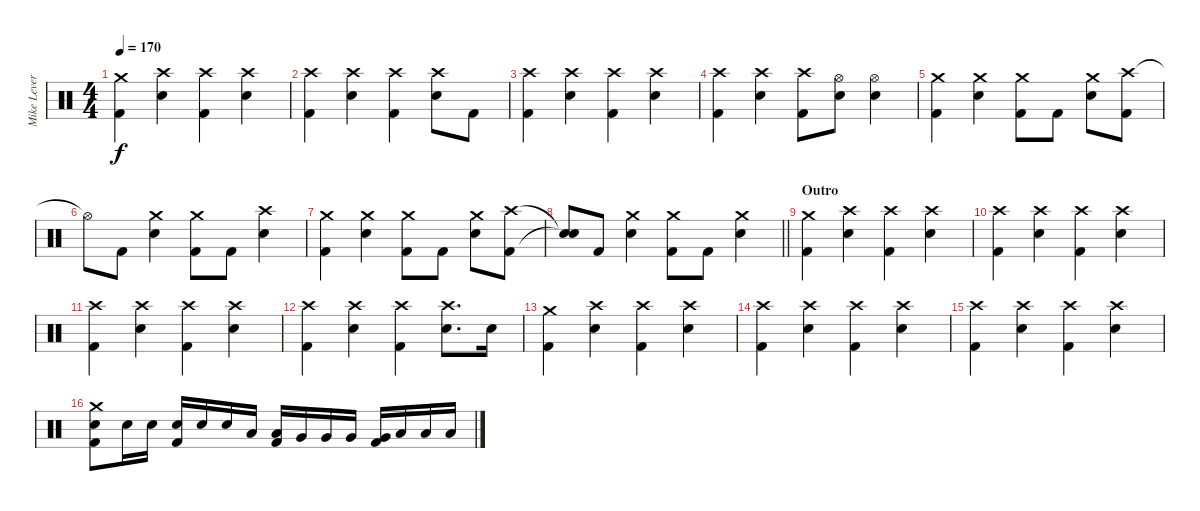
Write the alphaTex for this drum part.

\track ("Mike Leverence - Drums" "Mike Lever") {instrument percussion}
\staff {score}
\articulation defaults
\ts (4 4)
\tempo 170
\clef neutral
\ks c
("Crash medium (hit)" "Kick (hit) 2").4{dy f} ("Crash high (hit)" "Electric Snare (hit)").4 ("Crash high (hit)" "Kick (hit) 2").4 ("Crash high (hit)" "Electric Snare (hit)").4 |
("Crash high (hit)" "Kick (hit) 2").4 ("Crash high (hit)" "Electric Snare (hit)").4 ("Crash high (hit)" "Kick (hit) 2").4 ("Crash high (hit)" "Electric Snare (hit)").8 "Kick (hit) 2".8 |
("Crash high (hit)" "Kick (hit) 2").4 ("Crash high (hit)" "Electric Snare (hit)").4 ("Crash high (hit)" "Kick (hit) 2").4 ("Crash high (hit)" "Electric Snare (hit)").4 |
("Crash high (hit)" "Kick (hit) 2").4 ("Crash high (hit)" "Electric Snare (hit)").4 ("Crash high (hit)" "Kick (hit) 2").8 ("Hi-Hat (open)" "Electric Snare (hit)").8 ("Hi-Hat (open)" "Electric Snare (hit)").4 |
("Crash medium (hit)" "Kick (hit) 2").4 ("Crash medium (hit)" "Electric Snare (hit)").4 ("Crash medium (hit)" "Kick (hit) 2").8 "Kick (hit) 2".8 ("Crash medium (hit)" "Electric Snare (hit)").8 ("Crash high (hit)" "Kick (hit) 2").8 |
"Hi-Hat (open)"{t}.8 "Kick (hit) 2".8 ("Crash medium (hit)" "Electric Snare (hit)").4 ("Crash medium (hit)" "Kick (hit) 2").8 "Kick (hit) 2".8 ("Crash high (hit)" "Electric Snare (hit)").4 |
("Crash medium (hit)" "Kick (hit) 2").4 ("Crash medium (hit)" "Electric Snare (hit)").4 ("Crash medium (hit)" "Kick (hit) 2").8 "Kick (hit) 2".8 ("Crash medium (hit)" "Electric Snare (hit)").8 ("Crash high (hit)" "Kick (hit) 2").8 |
\barLineRight lightlight
("Snare (hit)"{t} "Snare (hit)"{t}).8 "Kick (hit) 2".8 ("Crash medium (hit)" "Electric Snare (hit)").4 ("Crash medium (hit)" "Kick (hit) 2").8 "Kick (hit) 2".8 ("Crash medium (hit)" "Electric Snare (hit)").4 |
\section ("" "Outro")
("Crash medium (hit)" "Kick (hit) 2").4 ("Crash high (hit)" "Electric Snare (hit)").4 ("Crash high (hit)" "Kick (hit) 2").4 ("Crash high (hit)" "Electric Snare (hit)").4 |
("Crash high (hit)" "Kick (hit) 2").4 ("Crash high (hit)" "Electric Snare (hit)").4 ("Crash high (hit)" "Kick (hit) 2").4 ("Crash high (hit)" "Electric Snare (hit)").4 |
("Crash high (hit)" "Kick (hit) 2").4 ("Crash high (hit)" "Electric Snare (hit)").4 ("Crash high (hit)" "Kick (hit) 2").4 ("Crash high (hit)" "Electric Snare (hit)").4 |
("Crash high (hit)" "Kick (hit) 2").4 ("Crash high (hit)" "Electric Snare (hit)").4 ("Crash high (hit)" "Kick (hit) 2").4 ("Crash high (hit)" "Electric Snare (hit)").8{d} "Electric Snare (hit)".16 |
("Crash medium (hit)" "Kick (hit) 2").4 ("Crash high (hit)" "Electric Snare (hit)").4 ("Crash high (hit)" "Kick (hit) 2").4 ("Crash high (hit)" "Electric Snare (hit)").4 |
("Crash high (hit)" "Kick (hit) 2").4 ("Crash high (hit)" "Electric Snare (hit)").4 ("Crash high (hit)" "Kick (hit) 2").4 ("Crash high (hit)" "Electric Snare (hit)").4 |
("Crash high (hit)" "Kick (hit) 2").4 ("Crash high (hit)" "Electric Snare (hit)").4 ("Crash high (hit)" "Kick (hit) 2").4 ("Crash high (hit)" "Electric Snare (hit)").4 |
("Crash medium (hit)" "Electric Snare (hit)" "Kick (hit) 2").8 "Electric Snare (hit)".16 "Electric Snare (hit)".16 ("Electric Snare (hit)" "Kick (hit) 2").16 "Electric Snare (hit)".16 "Electric Snare (hit)".16 "Low Tom (hit)".16 ("Low Tom (hit)" "Kick (hit) 2").16 "Very Low Tom (hit)".16 "Very Low Tom (hit)".16 "Very Low Tom (hit)".16 ("Very Low Tom (hit)" "Kick (hit) 2").16 "Low Floor Tom (hit)".16 "Low Floor Tom (hit)".16 "Low Floor Tom (hit)".16
